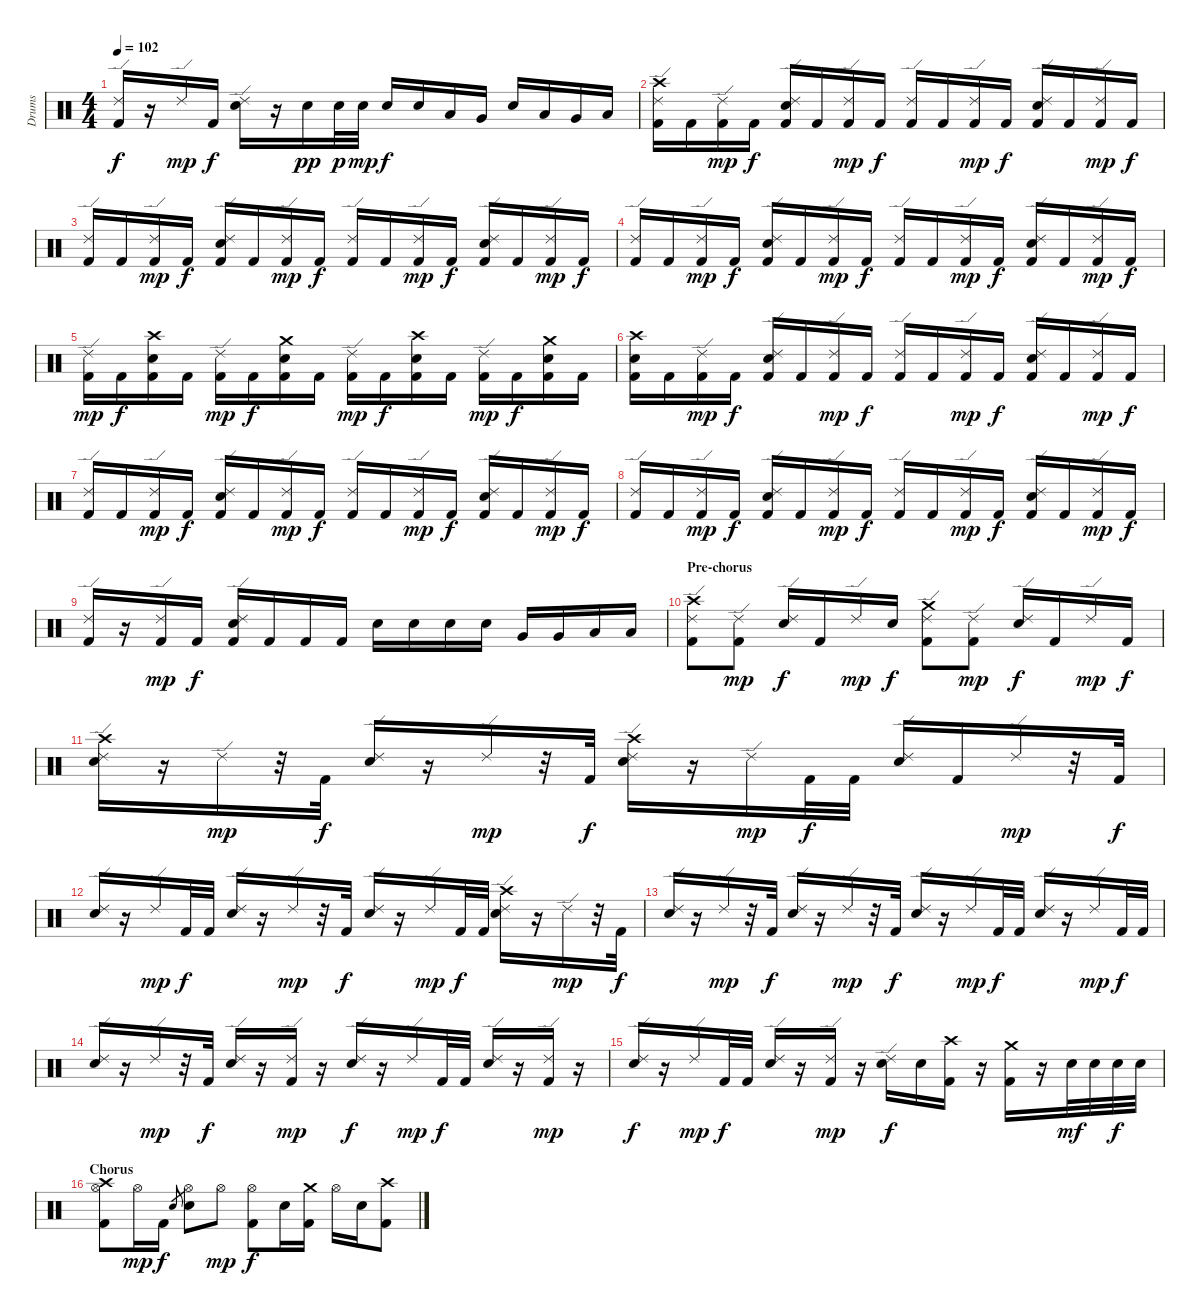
\track ("Drums" "Drums") {instrument percussion}
\staff {score}
\articulation defaults
\ts (4 4)
\tempo 102
\clef neutral
\ks c
("Kick (hit) 2" "Ride (edge) 2").16{dy f} r.16 "Ride (edge) 2".16{dy mp} "Kick (hit) 2".16{dy f} ("Ride (edge) 2" "Electric Snare (hit)").16 r.16 "Electric Snare (hit)".16{dy pp} "Electric Snare (hit)".32{dy p} "Electric Snare (hit)".32{dy mp} "Electric Snare (hit)".16{dy f} "Electric Snare (hit)".16 "Low Tom (hit)".16 "Very Low Tom (hit)".16 "Electric Snare (hit)".16 "Low Tom (hit)".16 "Very Low Tom (hit)".16 "Low Tom (hit)".16 |
("Kick (hit) 2" "Ride (edge) 2" "Crash high (hit)").16 "Kick (hit) 2".16 ("Kick (hit) 2" "Ride (edge) 2").16{dy mp} "Kick (hit) 2".16{dy f} ("Kick (hit) 2" "Ride (edge) 2" "Electric Snare (hit)").16 "Kick (hit) 2".16 ("Kick (hit) 2" "Ride (edge) 2").16{dy mp} "Kick (hit) 2".16{dy f} ("Kick (hit) 2" "Ride (edge) 2").16 "Kick (hit) 2".16 ("Kick (hit) 2" "Ride (edge) 2").16{dy mp} "Kick (hit) 2".16{dy f} ("Kick (hit) 2" "Ride (edge) 2" "Electric Snare (hit)").16 "Kick (hit) 2".16 ("Kick (hit) 2" "Ride (edge) 2").16{dy mp} "Kick (hit) 2".16{dy f} |
("Kick (hit) 2" "Ride (edge) 2").16 "Kick (hit) 2".16 ("Kick (hit) 2" "Ride (edge) 2").16{dy mp} "Kick (hit) 2".16{dy f} ("Kick (hit) 2" "Ride (edge) 2" "Electric Snare (hit)").16 "Kick (hit) 2".16 ("Kick (hit) 2" "Ride (edge) 2").16{dy mp} "Kick (hit) 2".16{dy f} ("Kick (hit) 2" "Ride (edge) 2").16 "Kick (hit) 2".16 ("Kick (hit) 2" "Ride (edge) 2").16{dy mp} "Kick (hit) 2".16{dy f} ("Kick (hit) 2" "Ride (edge) 2" "Electric Snare (hit)").16 "Kick (hit) 2".16 ("Kick (hit) 2" "Ride (edge) 2").16{dy mp} "Kick (hit) 2".16{dy f} |
("Kick (hit) 2" "Ride (edge) 2").16 "Kick (hit) 2".16 ("Kick (hit) 2" "Ride (edge) 2").16{dy mp} "Kick (hit) 2".16{dy f} ("Kick (hit) 2" "Ride (edge) 2" "Electric Snare (hit)").16 "Kick (hit) 2".16 ("Kick (hit) 2" "Ride (edge) 2").16{dy mp} "Kick (hit) 2".16{dy f} ("Kick (hit) 2" "Ride (edge) 2").16 "Kick (hit) 2".16 ("Kick (hit) 2" "Ride (edge) 2").16{dy mp} "Kick (hit) 2".16{dy f} ("Kick (hit) 2" "Ride (edge) 2" "Electric Snare (hit)").16 "Kick (hit) 2".16 ("Kick (hit) 2" "Ride (edge) 2").16{dy mp} "Kick (hit) 2".16{dy f} |
("Kick (hit) 2" "Ride (edge) 2").16{dy mp} "Kick (hit) 2".16{dy f} ("Kick (hit) 2" "Electric Snare (hit)" "Crash high (hit)").16 "Kick (hit) 2".16 ("Kick (hit) 2" "Ride (edge) 2").16{dy mp} "Kick (hit) 2".16{dy f} ("Kick (hit) 2" "Electric Snare (hit)" "Crash medium (hit)").16 "Kick (hit) 2".16 ("Kick (hit) 2" "Ride (edge) 2").16{dy mp} "Kick (hit) 2".16{dy f} ("Kick (hit) 2" "Electric Snare (hit)" "Crash high (hit)").16 "Kick (hit) 2".16 ("Kick (hit) 2" "Ride (edge) 2").16{dy mp} "Kick (hit) 2".16{dy f} ("Kick (hit) 2" "Electric Snare (hit)" "Crash medium (hit)").16 "Kick (hit) 2".16 |
("Kick (hit) 2" "Electric Snare (hit)" "Crash high (hit)").16 "Kick (hit) 2".16 ("Kick (hit) 2" "Ride (edge) 2").16{dy mp} "Kick (hit) 2".16{dy f} ("Kick (hit) 2" "Ride (edge) 2" "Electric Snare (hit)").16 "Kick (hit) 2".16 ("Kick (hit) 2" "Ride (edge) 2").16{dy mp} "Kick (hit) 2".16{dy f} ("Kick (hit) 2" "Ride (edge) 2").16 "Kick (hit) 2".16 ("Kick (hit) 2" "Ride (edge) 2").16{dy mp} "Kick (hit) 2".16{dy f} ("Kick (hit) 2" "Ride (edge) 2" "Electric Snare (hit)").16 "Kick (hit) 2".16 ("Kick (hit) 2" "Ride (edge) 2").16{dy mp} "Kick (hit) 2".16{dy f} |
("Kick (hit) 2" "Ride (edge) 2").16 "Kick (hit) 2".16 ("Kick (hit) 2" "Ride (edge) 2").16{dy mp} "Kick (hit) 2".16{dy f} ("Kick (hit) 2" "Ride (edge) 2" "Electric Snare (hit)").16 "Kick (hit) 2".16 ("Kick (hit) 2" "Ride (edge) 2").16{dy mp} "Kick (hit) 2".16{dy f} ("Kick (hit) 2" "Ride (edge) 2").16 "Kick (hit) 2".16 ("Kick (hit) 2" "Ride (edge) 2").16{dy mp} "Kick (hit) 2".16{dy f} ("Kick (hit) 2" "Ride (edge) 2" "Electric Snare (hit)").16 "Kick (hit) 2".16 ("Kick (hit) 2" "Ride (edge) 2").16{dy mp} "Kick (hit) 2".16{dy f} |
("Kick (hit) 2" "Ride (edge) 2").16 "Kick (hit) 2".16 ("Kick (hit) 2" "Ride (edge) 2").16{dy mp} "Kick (hit) 2".16{dy f} ("Kick (hit) 2" "Ride (edge) 2" "Electric Snare (hit)").16 "Kick (hit) 2".16 ("Kick (hit) 2" "Ride (edge) 2").16{dy mp} "Kick (hit) 2".16{dy f} ("Kick (hit) 2" "Ride (edge) 2").16 "Kick (hit) 2".16 ("Kick (hit) 2" "Ride (edge) 2").16{dy mp} "Kick (hit) 2".16{dy f} ("Kick (hit) 2" "Ride (edge) 2" "Electric Snare (hit)").16 "Kick (hit) 2".16 ("Kick (hit) 2" "Ride (edge) 2").16{dy mp} "Kick (hit) 2".16{dy f} |
("Kick (hit) 2" "Ride (edge) 2").16 r.16 ("Kick (hit) 2" "Ride (edge) 2").16{dy mp} "Kick (hit) 2".16{dy f} ("Kick (hit) 2" "Ride (edge) 2" "Electric Snare (hit)").16 "Kick (hit) 2".16 "Kick (hit) 2".16 "Kick (hit) 2".16 "Electric Snare (hit)".16 "Electric Snare (hit)".16 "Electric Snare (hit)".16 "Electric Snare (hit)".16 "Very Low Tom (hit)".16 "Very Low Tom (hit)".16 "Low Tom (hit)".16 "Low Tom (hit)".16 |
\section ("" "Pre-chorus")
("Kick (hit) 2" "Ride (edge) 2" "Crash high (hit)").8 ("Kick (hit) 2" "Ride (edge) 2").8{dy mp} ("Ride (edge) 2" "Electric Snare (hit)").16{dy f} "Kick (hit) 2".16 "Ride (edge) 2".16{dy mp} "Electric Snare (hit)".16{dy f} ("Kick (hit) 2" "Ride (edge) 2" "Crash medium (hit)").8 ("Kick (hit) 2" "Ride (edge) 2").8{dy mp} ("Ride (edge) 2" "Electric Snare (hit)").16{dy f} "Kick (hit) 2".16 "Ride (edge) 2".16{dy mp} "Kick (hit) 2".16{dy f} |
("Ride (edge) 2" "Electric Snare (hit)" "Crash high (hit)").16 r.16 "Ride (edge) 2".16{dy mp} r.32 "Kick (hit) 2".32{dy f} ("Ride (edge) 2" "Electric Snare (hit)").16 r.16 "Ride (edge) 2".16{dy mp} r.32 "Kick (hit) 2".32{dy f} ("Ride (edge) 2" "Electric Snare (hit)" "Crash high (hit)").16 r.16 "Ride (edge) 2".16{dy mp} "Kick (hit) 2".32{dy f} "Kick (hit) 2".32 ("Ride (edge) 2" "Electric Snare (hit)").16 "Kick (hit) 2".16 "Ride (edge) 2".16{dy mp} r.32 "Kick (hit) 2".32{dy f} |
("Ride (edge) 2" "Electric Snare (hit)").16 r.16 "Ride (edge) 2".16{dy mp} "Kick (hit) 2".32{dy f} "Kick (hit) 2".32 ("Ride (edge) 2" "Electric Snare (hit)").16 r.16 "Ride (edge) 2".16{dy mp} r.32 "Kick (hit) 2".32{dy f} ("Ride (edge) 2" "Electric Snare (hit)").16 r.16 "Ride (edge) 2".16{dy mp} "Kick (hit) 2".32{dy f} "Kick (hit) 2".32 ("Ride (edge) 2" "Electric Snare (hit)" "Crash high (hit)").16 r.16 "Ride (edge) 2".16{dy mp} r.32 "Kick (hit) 2".32{dy f} |
("Ride (edge) 2" "Electric Snare (hit)").16 r.16 "Ride (edge) 2".16{dy mp} r.32 "Kick (hit) 2".32{dy f} ("Ride (edge) 2" "Electric Snare (hit)").16 r.16 "Ride (edge) 2".16{dy mp} r.32 "Kick (hit) 2".32{dy f} ("Ride (edge) 2" "Electric Snare (hit)").16 r.16 "Ride (edge) 2".16{dy mp} "Kick (hit) 2".32{dy f} "Kick (hit) 2".32 ("Ride (edge) 2" "Electric Snare (hit)").16 r.16 "Ride (edge) 2".16{dy mp} "Kick (hit) 2".32{dy f} "Kick (hit) 2".32 |
("Ride (edge) 2" "Electric Snare (hit)").16 r.16 "Ride (edge) 2".16{dy mp} r.32 "Kick (hit) 2".32{dy f} ("Ride (edge) 2" "Electric Snare (hit)").16 r.16 ("Kick (hit) 2" "Ride (edge) 2").16{dy mp} r.16 ("Ride (edge) 2" "Electric Snare (hit)").16{dy f} r.16 "Ride (edge) 2".16{dy mp} "Kick (hit) 2".32{dy f} "Kick (hit) 2".32 ("Ride (edge) 2" "Electric Snare (hit)").16 r.16 ("Kick (hit) 2" "Ride (edge) 2").16{dy mp} r.16 |
("Ride (edge) 2" "Electric Snare (hit)").16{dy f} r.16 "Ride (edge) 2".16{dy mp} "Kick (hit) 2".32{dy f} "Kick (hit) 2".32 ("Ride (edge) 2" "Electric Snare (hit)").16 r.16 ("Kick (hit) 2" "Ride (edge) 2").16{dy mp} r.16 ("Ride (edge) 2" "Electric Snare (hit)").16{dy f} "Electric Snare (hit)".16 ("Kick (hit) 2" "Crash high (hit)").16 r.16 ("Kick (hit) 2" "Crash medium (hit)").16 r.16 "Electric Snare (hit)".32{dy mf} "Electric Snare (hit)".32 "Electric Snare (hit)".32{dy f} "Electric Snare (hit)".32 |
\section ("" "Chorus")
("Kick (hit) 2" "Hi-Hat (open)" "Crash high (hit)").8 "Hi-Hat (open)".16{dy mp} "Kick (hit) 2".16{dy f} "Electric Snare (hit)".8{gr} ("Electric Snare (hit)" "Hi-Hat (open)").8 "Hi-Hat (open)".8{dy mp} ("Kick (hit) 2" "Hi-Hat (open)").8{dy f} "Electric Snare (hit)".16 ("Kick (hit) 2" "Crash medium (hit)").16 "Hi-Hat (open)".16 "Electric Snare (hit)".16 ("Kick (hit) 2" "Crash high (hit)").8
